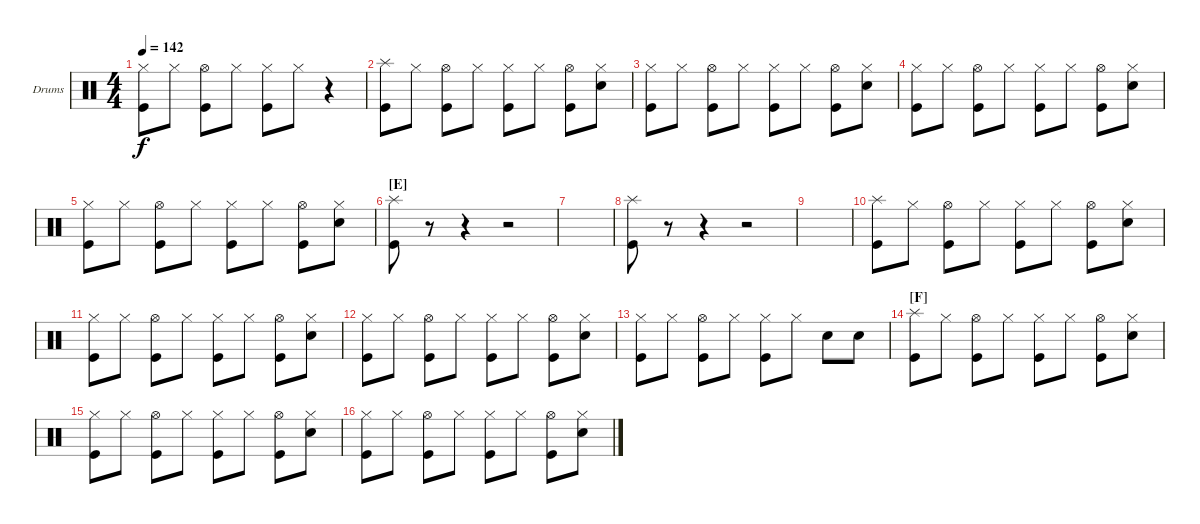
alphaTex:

\defaultSystemsLayout 4
\bracketExtendMode groupsimilarinstruments
\firstSystemTrackNameOrientation horizontal
\otherSystemsTrackNameOrientation horizontal
\track ("Drumkit" "Drums") {instrument percussion}
\staff {score}
\articulation defaults
\ts (4 4)
\tempo 142
\clef neutral
\ks c
("Kick (hit)" "Hi-Hat (closed)").8{dy f} "Hi-Hat (closed)".8 ("Hi-Hat (open)" "Kick (hit)").8 "Hi-Hat (closed)".8 ("Hi-Hat (closed)" "Kick (hit)").8 "Hi-Hat (closed)".8 r.4 |
("Kick (hit)" "Splash (hit)").8 "Hi-Hat (closed)".8 ("Hi-Hat (open)" "Kick (hit)").8 "Hi-Hat (closed)".8 ("Hi-Hat (closed)" "Kick (hit)").8 "Hi-Hat (closed)".8 ("Hi-Hat (open)" "Kick (hit)").8 ("Hi-Hat (closed)" "Snare (hit) 2").8 |
("Kick (hit)" "Hi-Hat (closed)").8 "Hi-Hat (closed)".8 ("Hi-Hat (open)" "Kick (hit)").8 "Hi-Hat (closed)".8 ("Hi-Hat (closed)" "Kick (hit)").8 "Hi-Hat (closed)".8 ("Hi-Hat (open)" "Kick (hit)").8 ("Hi-Hat (closed)" "Snare (hit) 2").8 |
("Kick (hit)" "Hi-Hat (closed)").8 "Hi-Hat (closed)".8 ("Hi-Hat (open)" "Kick (hit)").8 "Hi-Hat (closed)".8 ("Hi-Hat (closed)" "Kick (hit)").8 "Hi-Hat (closed)".8 ("Hi-Hat (open)" "Kick (hit)").8 ("Hi-Hat (closed)" "Snare (hit) 2").8 |
("Kick (hit)" "Hi-Hat (closed)").8 "Hi-Hat (closed)".8 ("Hi-Hat (open)" "Kick (hit)").8 "Hi-Hat (closed)".8 ("Hi-Hat (closed)" "Kick (hit)").8 "Hi-Hat (closed)".8 ("Hi-Hat (open)" "Kick (hit)").8 ("Hi-Hat (closed)" "Snare (hit) 2").8 |
\section ("E" "")
("Kick (hit)" "Splash (hit)").8 r.8 r.4 r.2 |
|
("Kick (hit)" "Splash (hit)").8 r.8 r.4 r.2 |
|
("Kick (hit)" "Splash (hit)").8 "Hi-Hat (closed)".8 ("Hi-Hat (open)" "Kick (hit)").8 "Hi-Hat (closed)".8 ("Hi-Hat (closed)" "Kick (hit)").8 "Hi-Hat (closed)".8 ("Hi-Hat (open)" "Kick (hit)").8 ("Hi-Hat (closed)" "Snare (hit) 2").8 |
("Kick (hit)" "Hi-Hat (closed)").8 "Hi-Hat (closed)".8 ("Hi-Hat (open)" "Kick (hit)").8 "Hi-Hat (closed)".8 ("Hi-Hat (closed)" "Kick (hit)").8 "Hi-Hat (closed)".8 ("Hi-Hat (open)" "Kick (hit)").8 ("Hi-Hat (closed)" "Snare (hit) 2").8 |
("Kick (hit)" "Hi-Hat (closed)").8 "Hi-Hat (closed)".8 ("Hi-Hat (open)" "Kick (hit)").8 "Hi-Hat (closed)".8 ("Hi-Hat (closed)" "Kick (hit)").8 "Hi-Hat (closed)".8 ("Hi-Hat (open)" "Kick (hit)").8 ("Hi-Hat (closed)" "Snare (hit) 2").8 |
("Kick (hit)" "Hi-Hat (closed)").8 "Hi-Hat (closed)".8 ("Hi-Hat (open)" "Kick (hit)").8 "Hi-Hat (closed)".8 ("Hi-Hat (closed)" "Kick (hit)").8 "Hi-Hat (closed)".8 "Snare (hit) 2".8 "Snare (hit) 2".8 |
\section ("F" "")
("Kick (hit)" "Splash (hit)").8 "Hi-Hat (closed)".8 ("Hi-Hat (open)" "Kick (hit)").8 "Hi-Hat (closed)".8 ("Hi-Hat (closed)" "Kick (hit)").8 "Hi-Hat (closed)".8 ("Hi-Hat (open)" "Kick (hit)").8 ("Hi-Hat (closed)" "Snare (hit) 2").8 |
("Kick (hit)" "Hi-Hat (closed)").8 "Hi-Hat (closed)".8 ("Hi-Hat (open)" "Kick (hit)").8 "Hi-Hat (closed)".8 ("Hi-Hat (closed)" "Kick (hit)").8 "Hi-Hat (closed)".8 ("Hi-Hat (open)" "Kick (hit)").8 ("Hi-Hat (closed)" "Snare (hit) 2").8 |
("Kick (hit)" "Hi-Hat (closed)").8 "Hi-Hat (closed)".8 ("Hi-Hat (open)" "Kick (hit)").8 "Hi-Hat (closed)".8 ("Hi-Hat (closed)" "Kick (hit)").8 "Hi-Hat (closed)".8 ("Hi-Hat (open)" "Kick (hit)").8 ("Hi-Hat (closed)" "Snare (hit) 2").8
